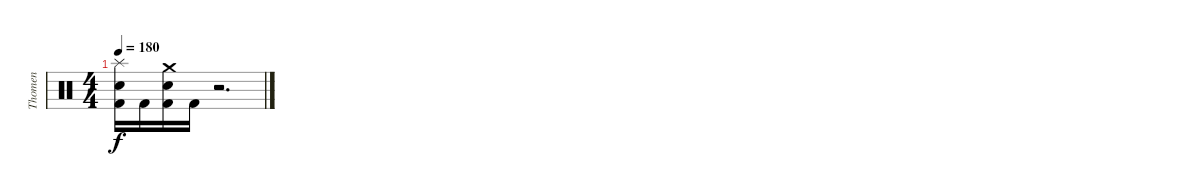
\track ("Thomen" "Thomen") {instrument percussion}
\staff {score}
\articulation defaults
\ts (4 4)
\tempo 180
\clef neutral
\ks c
("Kick (hit) 2" "Electric Snare (hit)" "Splash (hit)").16{dy f} "Kick (hit) 2".16 ("Kick (hit) 2" "Electric Snare (hit)" "Crash medium (hit)").16 "Kick (hit) 2".16 r.2{d}
